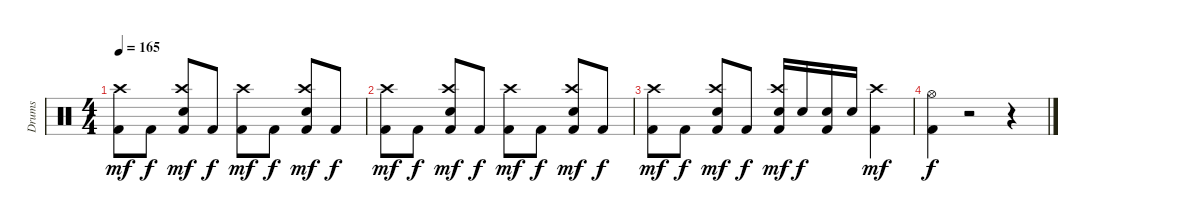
\track ("Drums" "Drums") {instrument percussion}
\staff {score}
\articulation defaults
\ts (4 4)
\tempo 165
\clef neutral
\ks c
("Kick (hit) 2" "Crash high (hit)").8{dy mf} "Kick (hit) 2".8{dy f} ("Kick (hit) 2" "Electric Snare (hit)" "Crash high (hit)").8{dy mf} "Kick (hit) 2".8{dy f} ("Kick (hit) 2" "Crash high (hit)").8{dy mf} "Kick (hit) 2".8{dy f} ("Kick (hit) 2" "Electric Snare (hit)" "Crash high (hit)").8{dy mf} "Kick (hit) 2".8{dy f} |
("Kick (hit) 2" "Crash high (hit)").8{dy mf} "Kick (hit) 2".8{dy f} ("Kick (hit) 2" "Electric Snare (hit)" "Crash high (hit)").8{dy mf} "Kick (hit) 2".8{dy f} ("Kick (hit) 2" "Crash high (hit)").8{dy mf} "Kick (hit) 2".8{dy f} ("Kick (hit) 2" "Electric Snare (hit)" "Crash high (hit)").8{dy mf} "Kick (hit) 2".8{dy f} |
("Kick (hit) 2" "Crash high (hit)").8{dy mf} "Kick (hit) 2".8{dy f} ("Kick (hit) 2" "Electric Snare (hit)" "Crash high (hit)").8{dy mf} "Kick (hit) 2".8{dy f} ("Kick (hit) 2" "Electric Snare (hit)" "Crash high (hit)").16{dy mf} "Electric Snare (hit)".16{dy f} ("Kick (hit) 2" "Electric Snare (hit)").16 "Electric Snare (hit)".16 ("Kick (hit) 2" "Crash high (hit)").4{dy mf} |
("Kick (hit) 2" "Hi-Hat (open)").4{dy f} r.2 r.4
